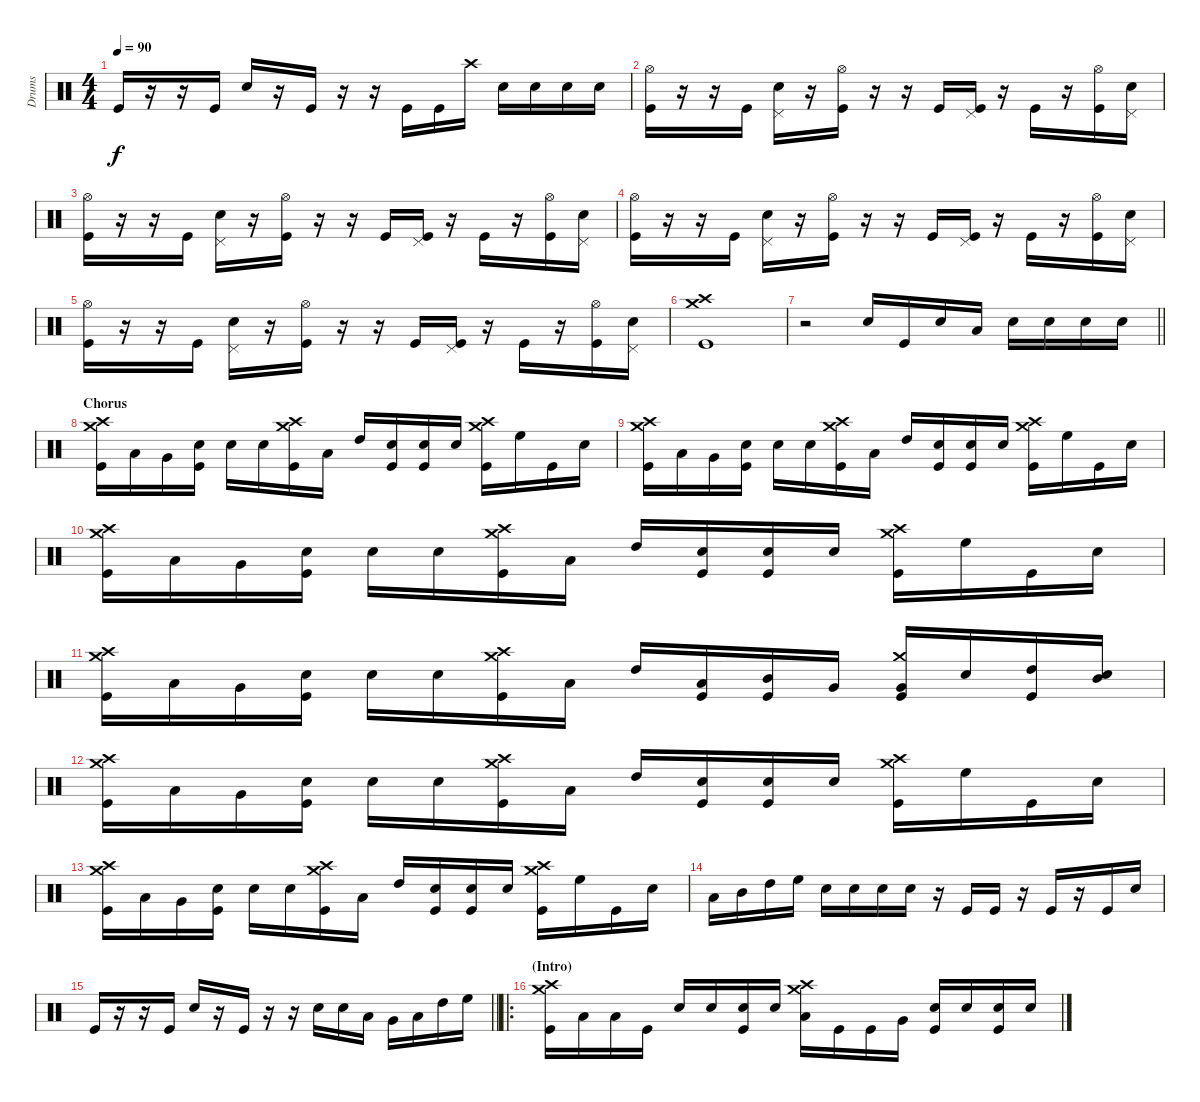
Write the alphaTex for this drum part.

\track ("Drums" "Drums") {instrument percussion}
\staff {score}
\articulation defaults
\ts (4 4)
\tempo 90
\clef neutral
\ks c "Kick (hit)".16{dy f}
r.16 r.16 "Kick (hit)".16 "Snare (hit) 2".16 r.16 "Kick (hit)".16 r.16 r.16 "Kick (hit)".16 "Kick (hit)".16 "Crash high (hit)".16 "Snare (hit) 2".16 "Snare (hit) 2".16 "Snare (hit) 2".16 "Snare (hit) 2".16 |
("Hi-Hat (open)" "Kick (hit)").16 r.16 r.16 "Kick (hit)".16 ("Pedal Hi-Hat (hit)" "Snare (hit) 2").16 r.16 ("Hi-Hat (open)" "Kick (hit)").16 r.16 r.16 "Kick (hit)".16 ("Pedal Hi-Hat (hit)" "Kick (hit)").16 r.16 "Kick (hit)".16 r.16 ("Hi-Hat (open)" "Kick (hit)").16 ("Pedal Hi-Hat (hit)" "Snare (hit) 2").16 |
("Hi-Hat (open)" "Kick (hit)").16 r.16 r.16 "Kick (hit)".16 ("Pedal Hi-Hat (hit)" "Snare (hit) 2").16 r.16 ("Hi-Hat (open)" "Kick (hit)").16 r.16 r.16 "Kick (hit)".16 ("Pedal Hi-Hat (hit)" "Kick (hit)").16 r.16 "Kick (hit)".16 r.16 ("Hi-Hat (open)" "Kick (hit)").16 ("Pedal Hi-Hat (hit)" "Snare (hit) 2").16 |
("Hi-Hat (open)" "Kick (hit)").16 r.16 r.16 "Kick (hit)".16 ("Pedal Hi-Hat (hit)" "Snare (hit) 2").16 r.16 ("Hi-Hat (open)" "Kick (hit)").16 r.16 r.16 "Kick (hit)".16 ("Pedal Hi-Hat (hit)" "Kick (hit)").16 r.16 "Kick (hit)".16 r.16 ("Hi-Hat (open)" "Kick (hit)").16 ("Pedal Hi-Hat (hit)" "Snare (hit) 2").16 |
("Hi-Hat (open)" "Kick (hit)").16 r.16 r.16 "Kick (hit)".16 ("Pedal Hi-Hat (hit)" "Snare (hit) 2").16 r.16 ("Hi-Hat (open)" "Kick (hit)").16 r.16 r.16 "Kick (hit)".16 ("Pedal Hi-Hat (hit)" "Kick (hit)").16 r.16 "Kick (hit)".16 r.16 ("Hi-Hat (open)" "Kick (hit)").16 ("Pedal Hi-Hat (hit)" "Snare (hit) 2").16 |
("Crash medium (hit)" "Crash high (hit)" "Kick (hit)").1 |
\barLineRight lightlight
r.2 "Snare (hit) 2".16 "Kick (hit)".16 "Snare (hit) 2".16 "Low Floor Tom (hit)".16 "Snare (hit) 2".16 "Snare (hit) 2".16 "Snare (hit) 2".16 "Snare (hit) 2".16 |
\section ("" "Chorus")
("Crash medium (hit)" "Crash high (hit)" "Kick (hit)").16 "Low Floor Tom (hit)".16 "Very Low Tom (hit)".16 ("Snare (hit) 2" "Kick (hit)").16 "Snare (hit) 2".16 "Snare (hit) 2".16 ("Crash medium (hit)" "Crash high (hit)" "Kick (hit)").16 "Low Tom (hit)".16 "High Tom (hit)".16 ("Snare (hit) 2" "Kick (hit)").16 ("Snare (hit) 2" "Kick (hit)").16 "Snare (hit) 2".16 ("Crash medium (hit)" "Crash high (hit)" "Kick (hit)").16 "High Floor Tom (hit)".16 "Kick (hit)".16 "Snare (hit) 2".16 |
("Crash medium (hit)" "Crash high (hit)" "Kick (hit)").16 "Low Floor Tom (hit)".16 "Very Low Tom (hit)".16 ("Snare (hit) 2" "Kick (hit)").16 "Snare (hit) 2".16 "Snare (hit) 2".16 ("Crash medium (hit)" "Crash high (hit)" "Kick (hit)").16 "Low Tom (hit)".16 "High Tom (hit)".16 ("Snare (hit) 2" "Kick (hit)").16 ("Snare (hit) 2" "Kick (hit)").16 "Snare (hit) 2".16 ("Crash medium (hit)" "Crash high (hit)" "Kick (hit)").16 "High Floor Tom (hit)".16 "Kick (hit)".16 "Snare (hit) 2".16 |
("Crash medium (hit)" "Crash high (hit)" "Kick (hit)").16 "Low Floor Tom (hit)".16 "Very Low Tom (hit)".16 ("Snare (hit) 2" "Kick (hit)").16 "Snare (hit) 2".16 "Snare (hit) 2".16 ("Crash medium (hit)" "Crash high (hit)" "Kick (hit)").16 "Low Tom (hit)".16 "High Tom (hit)".16 ("Snare (hit) 2" "Kick (hit)").16 ("Snare (hit) 2" "Kick (hit)").16 "Snare (hit) 2".16 ("Crash medium (hit)" "Crash high (hit)" "Kick (hit)").16 "High Floor Tom (hit)".16 "Kick (hit)".16 "Snare (hit) 2".16 |
("Crash medium (hit)" "Crash high (hit)" "Kick (hit)").16 "Low Floor Tom (hit)".16 "Very Low Tom (hit)".16 ("Snare (hit) 2" "Kick (hit)").16 "Snare (hit) 2".16 "Snare (hit) 2".16 ("Crash medium (hit)" "Crash high (hit)" "Kick (hit)").16 "Low Tom (hit)".16 "High Tom (hit)".16 ("Low Tom (hit)" "Kick (hit)").16 ("Mid Tom (hit)" "Kick (hit)").16 "Very Low Tom (hit)".16 ("Crash medium (hit)" "Very Low Tom (hit)" "Kick (hit)").16 "Snare (hit) 2".16 ("High Tom (hit)" "Kick (hit)").16 ("Mid Tom (hit)" "Snare (hit) 2").16 |
("Crash medium (hit)" "Crash high (hit)" "Kick (hit)").16 "Low Floor Tom (hit)".16 "Very Low Tom (hit)".16 ("Snare (hit) 2" "Kick (hit)").16 "Snare (hit) 2".16 "Snare (hit) 2".16 ("Crash medium (hit)" "Crash high (hit)" "Kick (hit)").16 "Low Tom (hit)".16 "High Tom (hit)".16 ("Snare (hit) 2" "Kick (hit)").16 ("Snare (hit) 2" "Kick (hit)").16 "Snare (hit) 2".16 ("Crash medium (hit)" "Crash high (hit)" "Kick (hit)").16 "High Floor Tom (hit)".16 "Kick (hit)".16 "Snare (hit) 2".16 |
("Crash medium (hit)" "Crash high (hit)" "Kick (hit)").16 "Low Floor Tom (hit)".16 "Very Low Tom (hit)".16 ("Snare (hit) 2" "Kick (hit)").16 "Snare (hit) 2".16 "Snare (hit) 2".16 ("Crash medium (hit)" "Crash high (hit)" "Kick (hit)").16 "Low Tom (hit)".16 "High Tom (hit)".16 ("Snare (hit) 2" "Kick (hit)").16 ("Snare (hit) 2" "Kick (hit)").16 "Snare (hit) 2".16 ("Crash medium (hit)" "Crash high (hit)" "Kick (hit)").16 "High Floor Tom (hit)".16 "Kick (hit)".16 "Snare (hit) 2".16 |
"Low Tom (hit)".16 "Mid Tom (hit)".16 "High Tom (hit)".16 "High Floor Tom (hit)".16 "Snare (hit) 2".16 "Snare (hit) 2".16 "Snare (hit) 2".16 "Snare (hit) 2".16 r.16 "Kick (hit)".16 "Kick (hit)".16 r.16 "Kick (hit)".16 r.16 "Kick (hit)".16 "Snare (hit) 2".16 |
\barLineRight lightlight "Kick (hit)".16
r.16 r.16 "Kick (hit)".16 "Snare (hit) 2".16 r.16 "Kick (hit)".16 r.16 r.16 "Snare (hit) 2".16 "Snare (hit) 2".16 "Low Floor Tom (hit)".16 "Very Low Tom (hit)".16 "Low Tom (hit)".16 "High Tom (hit)".16 "High Floor Tom (hit)".16 |
\ro
\section ("" "(Intro)")
("Crash medium (hit)" "Crash high (hit)" "Kick (hit)").16 "Low Tom (hit)".16 "Low Floor Tom (hit)".16 "Kick (hit)".16 "Snare (hit) 2".16 "Snare (hit) 2".16 ("Snare (hit) 2" "Kick (hit)").16 "Snare (hit) 2".16 ("Crash medium (hit)" "Crash high (hit)" "Low Floor Tom (hit)").16 "Kick (hit)".16 "Kick (hit)".16 "Very Low Tom (hit)".16 ("Snare (hit) 2" "Kick (hit)").16 "Snare (hit) 2".16 ("Snare (hit) 2" "Kick (hit)").16 "Snare (hit) 2".16
